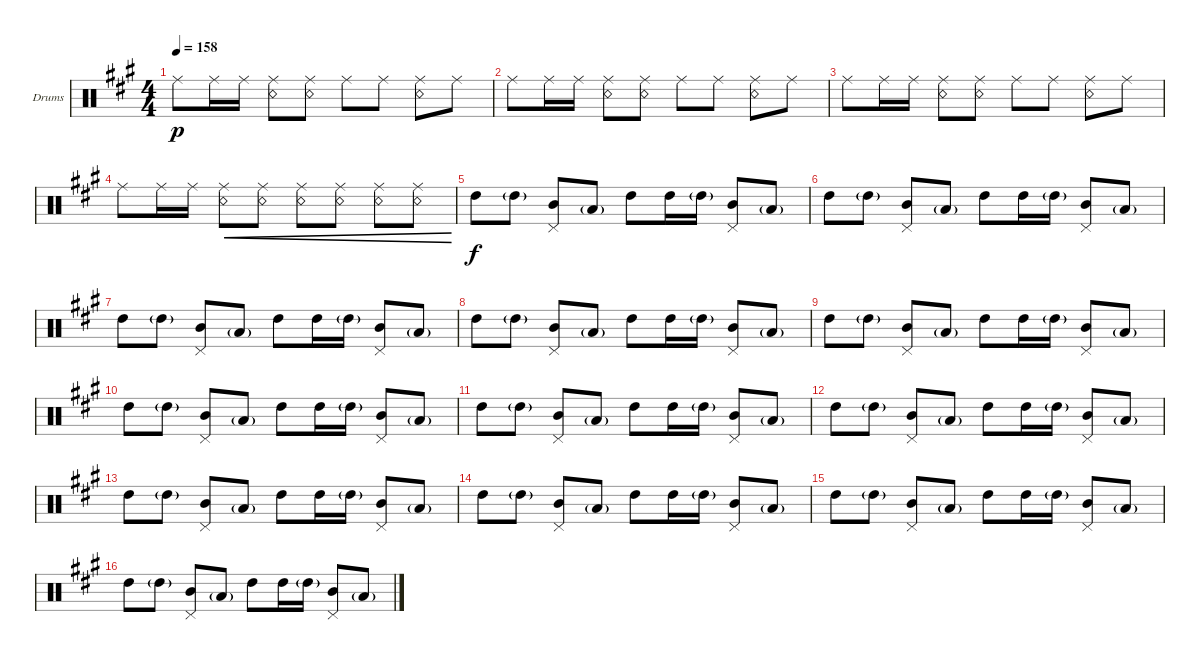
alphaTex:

\defaultSystemsLayout 4
\bracketExtendMode groupsimilarinstruments
\firstSystemTrackNameOrientation horizontal
\otherSystemsTrackNameOrientation horizontal
\track ("Drums" "Drums") {instrument percussion}
\staff {score}
\articulation defaults
\ts (4 4)
\tempo 158
\clef neutral
\scale
0.333333
\ks a "Ride (middle)".8{dy p} "Ride (middle)".16 "Ride (middle)".16
("Ride (middle)" "Snare (rim shot)").8 ("Ride (middle)" "Snare (rim shot)").8 "Ride (middle)".8 "Ride (middle)".8 ("Ride (middle)" "Snare (rim shot)").8 "Ride (middle)".8 |
\scale
0.333333 "Ride (middle)".8 "Ride (middle)".16 "Ride (middle)".16 ("Ride (middle)" "Snare (rim shot)").8 ("Ride (middle)" "Snare (rim shot)").8 "Ride (middle)".8 "Ride (middle)".8 ("Ride (middle)" "Snare (rim shot)").8 "Ride (middle)".8 |
\scale
0.333333 "Ride (middle)".8 "Ride (middle)".16 "Ride (middle)".16 ("Ride (middle)" "Snare (rim shot)").8 ("Ride (middle)" "Snare (rim shot)").8 "Ride (middle)".8 "Ride (middle)".8 ("Ride (middle)" "Snare (rim shot)").8 "Ride (middle)".8 |
\scale
0.333333 "Ride (middle)".8 "Ride (middle)".16 "Ride (middle)".16 ("Ride (middle)" "Snare (rim shot)").8{cre} ("Ride (middle)" "Snare (rim shot)").8{cre} ("Ride (middle)" "Snare (rim shot)").8{cre} ("Ride (middle)" "Snare (rim shot)").8{cre} ("Ride (middle)" "Snare (rim shot)").8{cre} ("Ride (middle)" "Snare (rim shot)").8{cre} |
\scale
0.333333 "High Tom (hit)".8{dy f} "High Tom (hit)"{g}.8 ("Mid Tom (hit)" "Pedal Hi-Hat (hit)").8 "Low Tom (hit)"{g}.8 "High Tom (hit)".8 "High Tom (hit)".16 "High Tom (hit)"{g}.16 ("Mid Tom (hit)" "Pedal Hi-Hat (hit)").8 "Low Tom (hit)"{g}.8 |
\scale
0.333333 "High Tom (hit)".8 "High Tom (hit)"{g}.8 ("Mid Tom (hit)" "Pedal Hi-Hat (hit)").8 "Low Tom (hit)"{g}.8 "High Tom (hit)".8 "High Tom (hit)".16 "High Tom (hit)"{g}.16 ("Mid Tom (hit)" "Pedal Hi-Hat (hit)").8 "Low Tom (hit)"{g}.8 |
\scale
0.333333 "High Tom (hit)".8 "High Tom (hit)"{g}.8 ("Mid Tom (hit)" "Pedal Hi-Hat (hit)").8 "Low Tom (hit)"{g}.8 "High Tom (hit)".8 "High Tom (hit)".16 "High Tom (hit)"{g}.16 ("Mid Tom (hit)" "Pedal Hi-Hat (hit)").8 "Low Tom (hit)"{g}.8 |
\scale
0.333333 "High Tom (hit)".8 "High Tom (hit)"{g}.8 ("Mid Tom (hit)" "Pedal Hi-Hat (hit)").8 "Low Tom (hit)"{g}.8 "High Tom (hit)".8 "High Tom (hit)".16 "High Tom (hit)"{g}.16 ("Mid Tom (hit)" "Pedal Hi-Hat (hit)").8 "Low Tom (hit)"{g}.8 |
\scale
0.333333 "High Tom (hit)".8 "High Tom (hit)"{g}.8 ("Mid Tom (hit)" "Pedal Hi-Hat (hit)").8 "Low Tom (hit)"{g}.8 "High Tom (hit)".8 "High Tom (hit)".16 "High Tom (hit)"{g}.16 ("Mid Tom (hit)" "Pedal Hi-Hat (hit)").8 "Low Tom (hit)"{g}.8 |
\scale
0.333333 "High Tom (hit)".8 "High Tom (hit)"{g}.8 ("Mid Tom (hit)" "Pedal Hi-Hat (hit)").8 "Low Tom (hit)"{g}.8 "High Tom (hit)".8 "High Tom (hit)".16 "High Tom (hit)"{g}.16 ("Mid Tom (hit)" "Pedal Hi-Hat (hit)").8 "Low Tom (hit)"{g}.8 |
\scale
0.333333 "High Tom (hit)".8 "High Tom (hit)"{g}.8 ("Mid Tom (hit)" "Pedal Hi-Hat (hit)").8 "Low Tom (hit)"{g}.8 "High Tom (hit)".8 "High Tom (hit)".16 "High Tom (hit)"{g}.16 ("Mid Tom (hit)" "Pedal Hi-Hat (hit)").8 "Low Tom (hit)"{g}.8 |
\scale
0.333333 "High Tom (hit)".8 "High Tom (hit)"{g}.8 ("Mid Tom (hit)" "Pedal Hi-Hat (hit)").8 "Low Tom (hit)"{g}.8 "High Tom (hit)".8 "High Tom (hit)".16 "High Tom (hit)"{g}.16 ("Mid Tom (hit)" "Pedal Hi-Hat (hit)").8 "Low Tom (hit)"{g}.8 |
\scale
0.333333 "High Tom (hit)".8 "High Tom (hit)"{g}.8 ("Mid Tom (hit)" "Pedal Hi-Hat (hit)").8 "Low Tom (hit)"{g}.8 "High Tom (hit)".8 "High Tom (hit)".16 "High Tom (hit)"{g}.16 ("Mid Tom (hit)" "Pedal Hi-Hat (hit)").8 "Low Tom (hit)"{g}.8 |
\scale
0.333333 "High Tom (hit)".8 "High Tom (hit)"{g}.8 ("Mid Tom (hit)" "Pedal Hi-Hat (hit)").8 "Low Tom (hit)"{g}.8 "High Tom (hit)".8 "High Tom (hit)".16 "High Tom (hit)"{g}.16 ("Mid Tom (hit)" "Pedal Hi-Hat (hit)").8 "Low Tom (hit)"{g}.8 |
\scale
0.333333 "High Tom (hit)".8 "High Tom (hit)"{g}.8 ("Mid Tom (hit)" "Pedal Hi-Hat (hit)").8 "Low Tom (hit)"{g}.8 "High Tom (hit)".8 "High Tom (hit)".16 "High Tom (hit)"{g}.16 ("Mid Tom (hit)" "Pedal Hi-Hat (hit)").8 "Low Tom (hit)"{g}.8 |
\scale
0.333333 "High Tom (hit)".8 "High Tom (hit)"{g}.8 ("Mid Tom (hit)" "Pedal Hi-Hat (hit)").8 "Low Tom (hit)"{g}.8 "High Tom (hit)".8 "High Tom (hit)".16 "High Tom (hit)"{g}.16 ("Mid Tom (hit)" "Pedal Hi-Hat (hit)").8 "Low Tom (hit)"{g}.8
